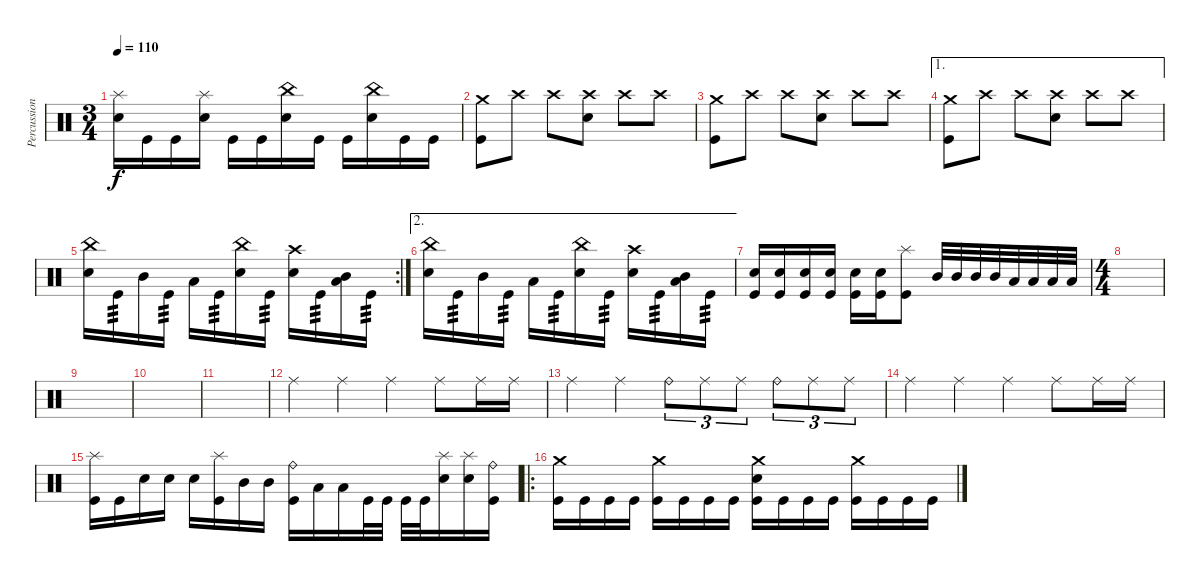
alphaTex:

\track ("Percussion" "Percussion") {instrument percussion}
\staff {score}
\articulation defaults
\ts (3 4)
\tempo 110
\clef neutral
\ks c
("Splash (hit)" "Electric Snare (hit)").16{dy f} "Kick (hit)".16 "Kick (hit)".16 ("Splash (hit)" "Electric Snare (hit)").16 "Kick (hit)".16 "Kick (hit)".16 ("China (hit)" "Electric Snare (hit)").16 "Kick (hit)".16 "Kick (hit)".16 ("China (hit)" "Electric Snare (hit)").16 "Kick (hit)".16 "Kick (hit)".16 |
("Crash medium (hit)" "Kick (hit)").8 "Crash high (hit)".8 "Crash high (hit)".8 ("Crash high (hit)" "Electric Snare (hit)").8 "Crash high (hit)".8 "Crash high (hit)".8 |
("Crash medium (hit)" "Kick (hit)").8 "Crash high (hit)".8 "Crash high (hit)".8 ("Crash high (hit)" "Electric Snare (hit)").8 "Crash high (hit)".8 "Crash high (hit)".8 |
\ae 1
("Crash medium (hit)" "Kick (hit)").8 "Crash high (hit)".8 "Crash high (hit)".8 ("Crash high (hit)" "Electric Snare (hit)").8 "Crash high (hit)".8 "Crash high (hit)".8 |
\rc 2
("China (hit)" "Electric Snare (hit)").16 "Kick (hit)".16{tp 3} "Mid Tom (hit)".16 "Kick (hit)".16{tp 3} "Low Tom (hit)".16 "Kick (hit)".16{tp 3} ("China (hit)" "Electric Snare (hit)").16 "Kick (hit)".16{tp 3} ("Crash high (hit)" "Electric Snare (hit)").16 "Kick (hit)".16{tp 3} ("Low Tom (hit)" "Mid Tom (hit)").16 "Kick (hit)".16{tp 3} |
\ae 2
("China (hit)" "Electric Snare (hit)").16 "Kick (hit)".16{tp 3} "Mid Tom (hit)".16 "Kick (hit)".16{tp 3} "Low Tom (hit)".16 "Kick (hit)".16{tp 3} ("China (hit)" "Electric Snare (hit)").16 "Kick (hit)".16{tp 3} ("Crash high (hit)" "Electric Snare (hit)").16 "Kick (hit)".16{tp 3} ("Low Tom (hit)" "Mid Tom (hit)").16 "Kick (hit)".16{tp 3} |
("Electric Snare (hit)" "Kick (hit)").16 ("Electric Snare (hit)" "Kick (hit)").16 ("Electric Snare (hit)" "Kick (hit)").16 ("Electric Snare (hit)" "Kick (hit)").16 ("Electric Snare (hit)" "Kick (hit)").16 ("Electric Snare (hit)" "Kick (hit)").16 ("Splash (hit)" "Kick (hit)").8 "Mid Tom (hit)".32 "Mid Tom (hit)".32 "Mid Tom (hit)".32 "Mid Tom (hit)".32 "Low Tom (hit)".32 "Low Tom (hit)".32 "Low Tom (hit)".32 "Low Tom (hit)".32 |
\ts (4 4)
|
|
|
|
"Ride (middle)".4 "Ride (middle)".4 "Ride (middle)".4 "Ride (middle)".8 "Ride (middle)".16 "Ride (middle)".16 |
"Ride (middle)".4 "Ride (middle)".4 "Ride (bell)".8{tu (3 2)} "Ride (middle)".8{tu (3 2)} "Ride (middle)".8{tu (3 2)} "Ride (bell)".8{tu (3 2)} "Ride (middle)".8{tu (3 2)} "Ride (middle)".8{tu (3 2)} |
"Ride (middle)".4 "Ride (middle)".4 "Ride (middle)".4 "Ride (middle)".8 "Ride (middle)".16 "Ride (middle)".16 |
("Splash (hit)" "Kick (hit)").16 "Kick (hit)".16 "Electric Snare (hit)".16 "Electric Snare (hit)".16 "Electric Snare (hit)".16 ("Splash (hit)" "Kick (hit)").16 "Mid Tom (hit)".16 "Mid Tom (hit)".16 ("Ride (bell)" "Kick (hit)").16 "Low Tom (hit)".16 "Low Tom (hit)".16 "Kick (hit)".32 "Kick (hit)".32 "Kick (hit)".32 "Kick (hit)".32 ("Splash (hit)" "Electric Snare (hit)").16 ("Splash (hit)" "Electric Snare (hit)").16 ("Ride (bell)" "Kick (hit)").16 |
\ro
("Crash medium (hit)" "Kick (hit)").16 "Kick (hit)".16 "Kick (hit)".16 "Kick (hit)".16 ("Crash medium (hit)" "Kick (hit)").16 "Kick (hit)".16 "Kick (hit)".16 "Kick (hit)".16 ("Electric Snare (hit)" "Crash medium (hit)" "Kick (hit)").16 "Kick (hit)".16 "Kick (hit)".16 "Kick (hit)".16 ("Crash medium (hit)" "Kick (hit)").16 "Kick (hit)".16 "Kick (hit)".16 "Kick (hit)".16
